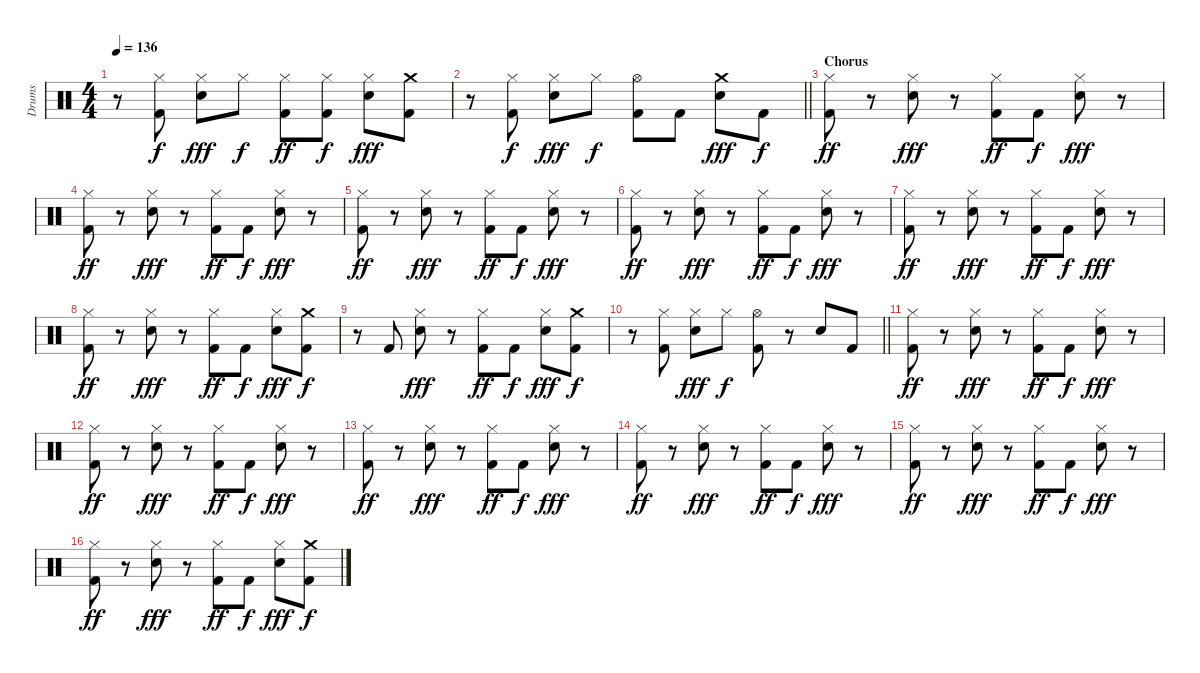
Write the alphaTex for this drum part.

\track ("Drums" "Drums") {instrument percussion}
\staff {score}
\articulation defaults
\ts (4 4)
\tempo 136
\clef neutral
\ks c
r.8{dy fff} ("Hi-Hat (closed)" "Kick (hit) 2").8{dy f} ("Hi-Hat (closed)" "Snare (hit) 2").8{dy fff} "Hi-Hat (closed)".8{dy f} ("Hi-Hat (closed)" "Kick (hit) 2").8{dy ff} ("Hi-Hat (closed)" "Kick (hit) 2").8{dy f} ("Hi-Hat (closed)" "Snare (hit) 2").8{dy fff} ("Crash medium (hit)" "Kick (hit) 2").8 |
\barLineRight lightlight
r.8 ("Hi-Hat (closed)" "Kick (hit) 2").8{dy f} ("Hi-Hat (closed)" "Snare (hit) 2").8{dy fff} "Hi-Hat (closed)".8{dy f} ("Hi-Hat (open)" "Kick (hit) 2").8 "Kick (hit) 2".8 ("Crash medium (hit)" "Snare (hit) 2").8{dy fff} "Kick (hit) 2".8{dy f} |
\section ("" "Chorus")
("Hi-Hat (closed)" "Kick (hit) 2").8{dy ff} r.8 ("Hi-Hat (closed)" "Snare (hit) 2").8{dy fff} r.8 ("Hi-Hat (closed)" "Kick (hit) 2").8{dy ff} "Kick (hit) 2".8{dy f} ("Hi-Hat (closed)" "Snare (hit) 2").8{dy fff} r.8 |
("Hi-Hat (closed)" "Kick (hit) 2").8{dy ff} r.8 ("Hi-Hat (closed)" "Snare (hit) 2").8{dy fff} r.8 ("Hi-Hat (closed)" "Kick (hit) 2").8{dy ff} "Kick (hit) 2".8{dy f} ("Hi-Hat (closed)" "Snare (hit) 2").8{dy fff} r.8 |
("Hi-Hat (closed)" "Kick (hit) 2").8{dy ff} r.8 ("Hi-Hat (closed)" "Snare (hit) 2").8{dy fff} r.8 ("Hi-Hat (closed)" "Kick (hit) 2").8{dy ff} "Kick (hit) 2".8{dy f} ("Hi-Hat (closed)" "Snare (hit) 2").8{dy fff} r.8 |
("Hi-Hat (closed)" "Kick (hit) 2").8{dy ff} r.8 ("Hi-Hat (closed)" "Snare (hit) 2").8{dy fff} r.8 ("Hi-Hat (closed)" "Kick (hit) 2").8{dy ff} "Kick (hit) 2".8{dy f} ("Hi-Hat (closed)" "Snare (hit) 2").8{dy fff} r.8 |
("Hi-Hat (closed)" "Kick (hit) 2").8{dy ff} r.8 ("Hi-Hat (closed)" "Snare (hit) 2").8{dy fff} r.8 ("Hi-Hat (closed)" "Kick (hit) 2").8{dy ff} "Kick (hit) 2".8{dy f} ("Hi-Hat (closed)" "Snare (hit) 2").8{dy fff} r.8 |
("Hi-Hat (closed)" "Kick (hit) 2").8{dy ff} r.8 ("Hi-Hat (closed)" "Snare (hit) 2").8{dy fff} r.8 ("Hi-Hat (closed)" "Kick (hit) 2").8{dy ff} "Kick (hit) 2".8{dy f} ("Hi-Hat (closed)" "Snare (hit) 2").8{dy fff} ("Crash medium (hit)" "Kick (hit) 2").8{dy f} |
r.8 "Kick (hit) 2".8 ("Hi-Hat (closed)" "Snare (hit) 2").8{dy fff} r.8 ("Hi-Hat (closed)" "Kick (hit) 2").8{dy ff} "Kick (hit) 2".8{dy f} ("Hi-Hat (closed)" "Snare (hit) 2").8{dy fff} ("Crash medium (hit)" "Kick (hit) 2").8{dy f} |
\barLineRight lightlight
r.8 ("Hi-Hat (closed)" "Kick (hit) 2").8 ("Hi-Hat (closed)" "Snare (hit) 2").8{dy fff} "Hi-Hat (closed)".8{dy f} ("Hi-Hat (open)" "Kick (hit) 2").8 r.8 "Snare (hit) 2".8 "Kick (hit) 2".8 |
("Hi-Hat (closed)" "Kick (hit) 2").8{dy ff} r.8 ("Hi-Hat (closed)" "Snare (hit) 2").8{dy fff} r.8 ("Hi-Hat (closed)" "Kick (hit) 2").8{dy ff} "Kick (hit) 2".8{dy f} ("Hi-Hat (closed)" "Snare (hit) 2").8{dy fff} r.8 |
("Hi-Hat (closed)" "Kick (hit) 2").8{dy ff} r.8 ("Hi-Hat (closed)" "Snare (hit) 2").8{dy fff} r.8 ("Hi-Hat (closed)" "Kick (hit) 2").8{dy ff} "Kick (hit) 2".8{dy f} ("Hi-Hat (closed)" "Snare (hit) 2").8{dy fff} r.8 |
("Hi-Hat (closed)" "Kick (hit) 2").8{dy ff} r.8 ("Hi-Hat (closed)" "Snare (hit) 2").8{dy fff} r.8 ("Hi-Hat (closed)" "Kick (hit) 2").8{dy ff} "Kick (hit) 2".8{dy f} ("Hi-Hat (closed)" "Snare (hit) 2").8{dy fff} r.8 |
("Hi-Hat (closed)" "Kick (hit) 2").8{dy ff} r.8 ("Hi-Hat (closed)" "Snare (hit) 2").8{dy fff} r.8 ("Hi-Hat (closed)" "Kick (hit) 2").8{dy ff} "Kick (hit) 2".8{dy f} ("Hi-Hat (closed)" "Snare (hit) 2").8{dy fff} r.8 |
("Hi-Hat (closed)" "Kick (hit) 2").8{dy ff} r.8 ("Hi-Hat (closed)" "Snare (hit) 2").8{dy fff} r.8 ("Hi-Hat (closed)" "Kick (hit) 2").8{dy ff} "Kick (hit) 2".8{dy f} ("Hi-Hat (closed)" "Snare (hit) 2").8{dy fff} r.8 |
("Hi-Hat (closed)" "Kick (hit) 2").8{dy ff} r.8 ("Hi-Hat (closed)" "Snare (hit) 2").8{dy fff} r.8 ("Hi-Hat (closed)" "Kick (hit) 2").8{dy ff} "Kick (hit) 2".8{dy f} ("Hi-Hat (closed)" "Snare (hit) 2").8{dy fff} ("Crash medium (hit)" "Kick (hit) 2").8{dy f}
